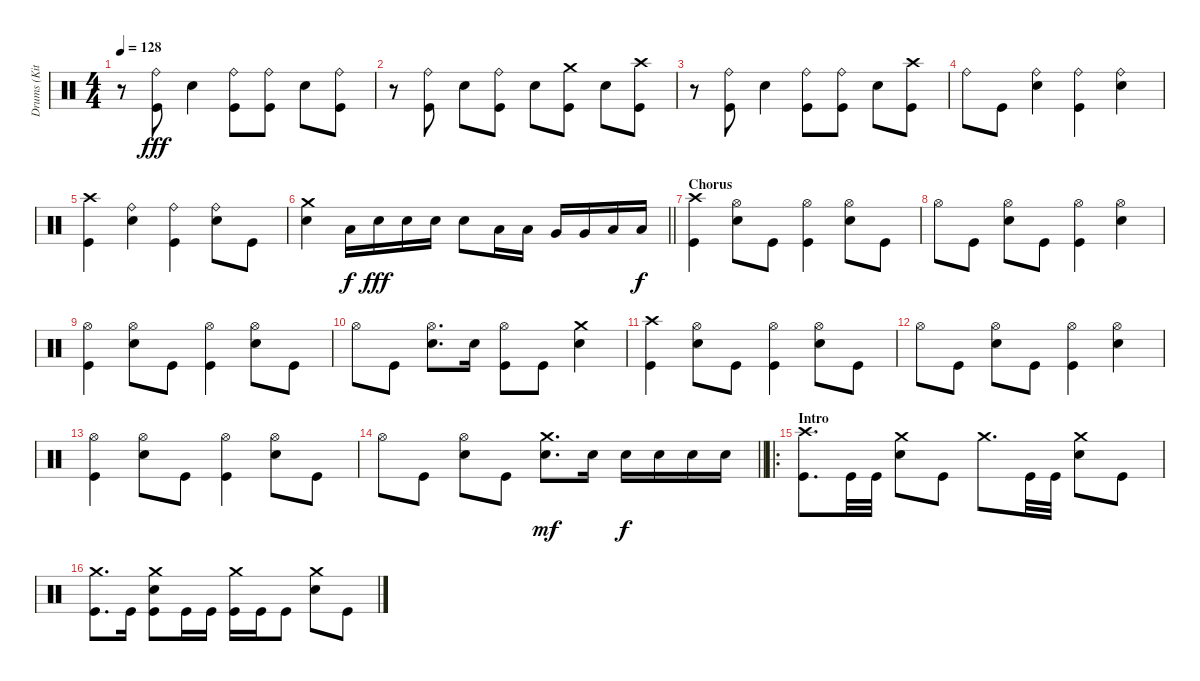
\track ("Drums (Kita)" "Drums (Kit") {instrument percussion}
\staff {score}
\articulation defaults
\ts (4 4)
\tempo 128
\clef neutral
\ks c
r.8{dy fff} ("Ride (bell)" "Kick (hit)").8 "Electric Snare (hit)".4 ("Ride (bell)" "Kick (hit)").8 ("Ride (bell)" "Kick (hit)").8 "Electric Snare (hit)".8 ("Ride (bell)" "Kick (hit)").8 |
r.8 ("Ride (bell)" "Kick (hit)").8 "Electric Snare (hit)".8 ("Ride (bell)" "Kick (hit)").8 "Electric Snare (hit)".8 ("Crash medium (hit)" "Kick (hit)").8 "Electric Snare (hit)".8 ("Crash high (hit)" "Kick (hit)").8 |
r.8 ("Ride (bell)" "Kick (hit)").8 "Electric Snare (hit)".4 ("Ride (bell)" "Kick (hit)").8 ("Ride (bell)" "Kick (hit)").8 "Electric Snare (hit)".8 ("Crash high (hit)" "Kick (hit)").8 |
"Ride (bell)".8 "Kick (hit)".8 ("Ride (bell)" "Electric Snare (hit)").4 ("Ride (bell)" "Kick (hit)").4 ("Ride (bell)" "Electric Snare (hit)").4 |
("Crash high (hit)" "Kick (hit)").4 ("Ride (bell)" "Electric Snare (hit)").4 ("Ride (bell)" "Kick (hit)").4 ("Ride (bell)" "Electric Snare (hit)").8 "Kick (hit)".8 |
\barLineRight lightlight
("Crash medium (hit)" "Electric Snare (hit)").4 "Low Tom (hit)".16{dy f} "Electric Snare (hit)".16{dy fff} "Electric Snare (hit)".16 "Electric Snare (hit)".16 "Electric Snare (hit)".8 "Low Tom (hit)".16 "Low Tom (hit)".16 "Very Low Tom (hit)".16 "Very Low Tom (hit)".16 "Low Floor Tom (hit)".16 "Low Floor Tom (hit)".16{dy f} |
\section ("" "Chorus")
("Crash high (hit)" "Kick (hit)").4 ("Hi-Hat (open)" "Electric Snare (hit)").8 "Kick (hit)".8 ("Hi-Hat (open)" "Kick (hit)").4 ("Hi-Hat (open)" "Electric Snare (hit)").8 "Kick (hit)".8 |
"Hi-Hat (open)".8 "Kick (hit)".8 ("Hi-Hat (open)" "Electric Snare (hit)").8 "Kick (hit)".8 ("Hi-Hat (open)" "Kick (hit)").4 ("Hi-Hat (open)" "Electric Snare (hit)").4 |
("Hi-Hat (open)" "Kick (hit)").4 ("Hi-Hat (open)" "Electric Snare (hit)").8 "Kick (hit)".8 ("Hi-Hat (open)" "Kick (hit)").4 ("Hi-Hat (open)" "Electric Snare (hit)").8 "Kick (hit)".8 |
"Hi-Hat (open)".8 "Kick (hit)".8 ("Hi-Hat (open)" "Electric Snare (hit)").8{d} "Electric Snare (hit)".16 ("Hi-Hat (open)" "Kick (hit)").8 "Kick (hit)".8 ("Crash medium (hit)" "Electric Snare (hit)").4 |
("Crash high (hit)" "Kick (hit)").4 ("Hi-Hat (open)" "Electric Snare (hit)").8 "Kick (hit)".8 ("Hi-Hat (open)" "Kick (hit)").4 ("Hi-Hat (open)" "Electric Snare (hit)").8 "Kick (hit)".8 |
"Hi-Hat (open)".8 "Kick (hit)".8 ("Hi-Hat (open)" "Electric Snare (hit)").8 "Kick (hit)".8 ("Hi-Hat (open)" "Kick (hit)").4 ("Hi-Hat (open)" "Electric Snare (hit)").4 |
("Hi-Hat (open)" "Kick (hit)").4 ("Hi-Hat (open)" "Electric Snare (hit)").8 "Kick (hit)".8 ("Hi-Hat (open)" "Kick (hit)").4 ("Hi-Hat (open)" "Electric Snare (hit)").8 "Kick (hit)".8 |
\barLineRight lightlight "Hi-Hat (open)".8 "Kick (hit)".8
("Hi-Hat (open)" "Electric Snare (hit)").8 "Kick (hit)".8 ("Crash medium (hit)" "Electric Snare (hit)").8{d dy mf} "Electric Snare (hit)".16 "Electric Snare (hit)".16{dy f} "Electric Snare (hit)".16 "Electric Snare (hit)".16 "Electric Snare (hit)".16 |
\ro
\section ("" "Intro")
("Crash high (hit)" "Kick (hit)").8{d} "Kick (hit)".32 "Kick (hit)".32 ("Crash medium (hit)" "Electric Snare (hit)").8 "Kick (hit)".8 "Crash medium (hit)".8{d} "Kick (hit)".32 "Kick (hit)".32 ("Crash medium (hit)" "Electric Snare (hit)").8 "Kick (hit)".8 |
("Crash medium (hit)" "Kick (hit)").8{d} "Kick (hit)".16 ("Crash medium (hit)" "Electric Snare (hit)" "Kick (hit)").8 "Kick (hit)".16 "Kick (hit)".16 ("Crash medium (hit)" "Kick (hit)").16 "Kick (hit)".16 "Kick (hit)".8 ("Crash medium (hit)" "Electric Snare (hit)").8 "Kick (hit)".8
